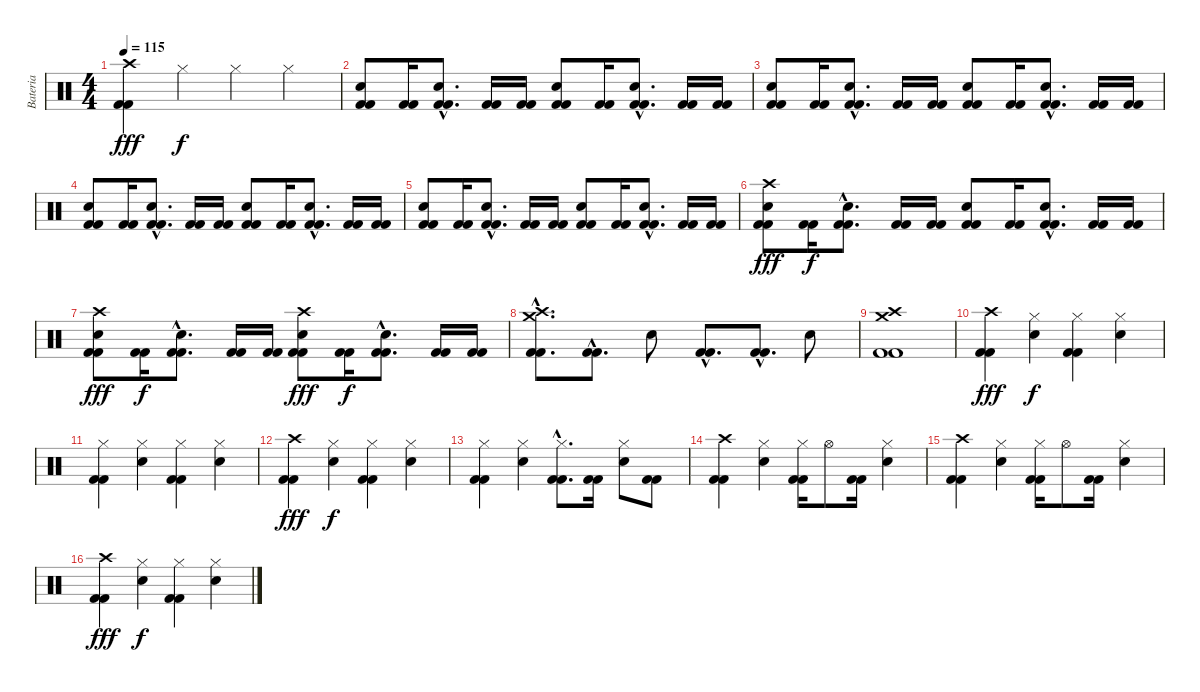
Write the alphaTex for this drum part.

\track ("Bateria" "Bateria") {instrument percussion}
\staff {score}
\articulation defaults
\ts (4 4)
\tempo 115
\clef neutral
\ks c
("Crash high (hit)" "Kick (hit) 2" "Kick (hit) 2").4{dy fff} "Hi-Hat (closed)".4{dy f} "Hi-Hat (closed)".4 "Hi-Hat (closed)".4 |
("Electric Snare (hit)" "Kick (hit) 2" "Kick (hit) 2").8 ("Kick (hit) 2" "Kick (hit) 2").16 ("Electric Snare (hit)"{hac} "Kick (hit) 2"{hac} "Kick (hit) 2"{hac}).8{d} ("Kick (hit) 2" "Kick (hit) 2").16 ("Kick (hit) 2" "Kick (hit) 2").16 ("Electric Snare (hit)" "Kick (hit) 2" "Kick (hit) 2").8 ("Kick (hit) 2" "Kick (hit) 2").16 ("Electric Snare (hit)"{hac} "Kick (hit) 2"{hac} "Kick (hit) 2"{hac}).8{d} ("Kick (hit) 2" "Kick (hit) 2").16 ("Kick (hit) 2" "Kick (hit) 2").16 |
("Electric Snare (hit)" "Kick (hit) 2" "Kick (hit) 2").8 ("Kick (hit) 2" "Kick (hit) 2").16 ("Electric Snare (hit)"{hac} "Kick (hit) 2"{hac} "Kick (hit) 2"{hac}).8{d} ("Kick (hit) 2" "Kick (hit) 2").16 ("Kick (hit) 2" "Kick (hit) 2").16 ("Electric Snare (hit)" "Kick (hit) 2" "Kick (hit) 2").8 ("Kick (hit) 2" "Kick (hit) 2").16 ("Electric Snare (hit)"{hac} "Kick (hit) 2"{hac} "Kick (hit) 2"{hac}).8{d} ("Kick (hit) 2" "Kick (hit) 2").16 ("Kick (hit) 2" "Kick (hit) 2").16 |
("Electric Snare (hit)" "Kick (hit) 2" "Kick (hit) 2").8 ("Kick (hit) 2" "Kick (hit) 2").16 ("Electric Snare (hit)"{hac} "Kick (hit) 2"{hac} "Kick (hit) 2"{hac}).8{d} ("Kick (hit) 2" "Kick (hit) 2").16 ("Kick (hit) 2" "Kick (hit) 2").16 ("Electric Snare (hit)" "Kick (hit) 2" "Kick (hit) 2").8 ("Kick (hit) 2" "Kick (hit) 2").16 ("Electric Snare (hit)"{hac} "Kick (hit) 2"{hac} "Kick (hit) 2"{hac}).8{d} ("Kick (hit) 2" "Kick (hit) 2").16 ("Kick (hit) 2" "Kick (hit) 2").16 |
("Electric Snare (hit)" "Kick (hit) 2" "Kick (hit) 2").8 ("Kick (hit) 2" "Kick (hit) 2").16 ("Electric Snare (hit)"{hac} "Kick (hit) 2"{hac} "Kick (hit) 2"{hac}).8{d} ("Kick (hit) 2" "Kick (hit) 2").16 ("Kick (hit) 2" "Kick (hit) 2").16 ("Electric Snare (hit)" "Kick (hit) 2" "Kick (hit) 2").8 ("Kick (hit) 2" "Kick (hit) 2").16 ("Electric Snare (hit)"{hac} "Kick (hit) 2"{hac} "Kick (hit) 2"{hac}).8{d} ("Kick (hit) 2" "Kick (hit) 2").16 ("Kick (hit) 2" "Kick (hit) 2").16 |
("Crash high (hit)" "Electric Snare (hit)" "Kick (hit) 2" "Kick (hit) 2").8{dy fff} ("Kick (hit) 2" "Kick (hit) 2").16{dy f} ("Electric Snare (hit)"{hac} "Kick (hit) 2"{hac} "Kick (hit) 2"{hac}).8{d} ("Kick (hit) 2" "Kick (hit) 2").16 ("Kick (hit) 2" "Kick (hit) 2").16 ("Electric Snare (hit)" "Kick (hit) 2" "Kick (hit) 2").8 ("Kick (hit) 2" "Kick (hit) 2").16 ("Electric Snare (hit)"{hac} "Kick (hit) 2"{hac} "Kick (hit) 2"{hac}).8{d} ("Kick (hit) 2" "Kick (hit) 2").16 ("Kick (hit) 2" "Kick (hit) 2").16 |
("Crash high (hit)" "Electric Snare (hit)" "Kick (hit) 2" "Kick (hit) 2").8{dy fff} ("Kick (hit) 2" "Kick (hit) 2").16{dy f} ("Electric Snare (hit)"{hac} "Kick (hit) 2"{hac} "Kick (hit) 2"{hac}).8{d} ("Kick (hit) 2" "Kick (hit) 2").16 ("Kick (hit) 2" "Kick (hit) 2").16 ("Crash high (hit)" "Electric Snare (hit)" "Kick (hit) 2" "Kick (hit) 2").8{dy fff} ("Kick (hit) 2" "Kick (hit) 2").16{dy f} ("Electric Snare (hit)"{hac} "Kick (hit) 2"{hac} "Kick (hit) 2"{hac}).8{d} ("Kick (hit) 2" "Kick (hit) 2").16 ("Kick (hit) 2" "Kick (hit) 2").16 |
("Crash high (hit)"{hac} "Crash medium (hit)"{hac} "Kick (hit) 2"{hac} "Kick (hit) 2"{hac}).8{d} ("Kick (hit) 2"{hac} "Kick (hit) 2"{hac}).8{d} "Electric Snare (hit)".8 ("Kick (hit) 2"{hac} "Kick (hit) 2"{hac}).8{d} ("Kick (hit) 2"{hac} "Kick (hit) 2"{hac}).8{d} "Electric Snare (hit)".8 |
("Crash high (hit)" "Crash medium (hit)" "Kick (hit) 2" "Kick (hit) 2").1 |
("Crash high (hit)" "Kick (hit) 2" "Kick (hit) 2").4{dy fff} ("Hi-Hat (closed)" "Electric Snare (hit)").4{dy f} ("Hi-Hat (closed)" "Kick (hit) 2" "Kick (hit) 2").4 ("Hi-Hat (closed)" "Electric Snare (hit)").4 |
("Hi-Hat (closed)" "Kick (hit) 2" "Kick (hit) 2").4 ("Hi-Hat (closed)" "Electric Snare (hit)").4 ("Hi-Hat (closed)" "Kick (hit) 2" "Kick (hit) 2").4 ("Hi-Hat (closed)" "Electric Snare (hit)").4 |
("Crash high (hit)" "Kick (hit) 2" "Kick (hit) 2").4{dy fff} ("Hi-Hat (closed)" "Electric Snare (hit)").4{dy f} ("Hi-Hat (closed)" "Kick (hit) 2" "Kick (hit) 2").4 ("Hi-Hat (closed)" "Electric Snare (hit)").4 |
("Hi-Hat (closed)" "Kick (hit) 2" "Kick (hit) 2").4 ("Hi-Hat (closed)" "Electric Snare (hit)").4 ("Hi-Hat (closed)"{hac} "Kick (hit) 2"{hac} "Kick (hit) 2"{hac}).8{d} ("Kick (hit) 2" "Kick (hit) 2").16 ("Hi-Hat (closed)" "Electric Snare (hit)").8 ("Kick (hit) 2" "Kick (hit) 2").8 |
("Crash high (hit)" "Kick (hit) 2" "Kick (hit) 2").4 ("Hi-Hat (closed)" "Electric Snare (hit)").4 ("Hi-Hat (closed)" "Kick (hit) 2" "Kick (hit) 2").16 "Hi-Hat (open)".8 ("Kick (hit) 2" "Kick (hit) 2").16 ("Hi-Hat (closed)" "Electric Snare (hit)").4 |
("Crash high (hit)" "Kick (hit) 2" "Kick (hit) 2").4 ("Hi-Hat (closed)" "Electric Snare (hit)").4 ("Hi-Hat (closed)" "Kick (hit) 2" "Kick (hit) 2").16 "Hi-Hat (open)".8 ("Kick (hit) 2" "Kick (hit) 2").16 ("Hi-Hat (closed)" "Electric Snare (hit)").4 |
("Crash high (hit)" "Kick (hit) 2" "Kick (hit) 2").4{dy fff} ("Hi-Hat (closed)" "Electric Snare (hit)").4{dy f} ("Hi-Hat (closed)" "Kick (hit) 2" "Kick (hit) 2").4 ("Hi-Hat (closed)" "Electric Snare (hit)").4
